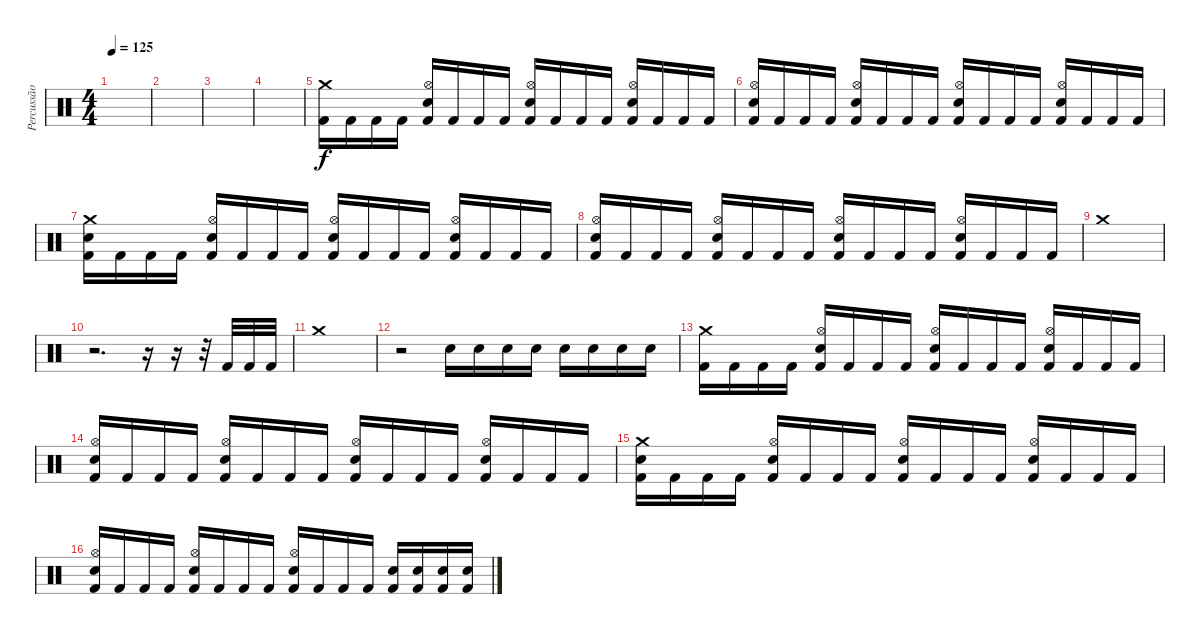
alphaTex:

\track ("Percussão" "Percussão") {instrument percussion}
\staff {score}
\articulation defaults
\ts (4 4)
\tempo 125
\clef neutral
\ks c
|
|
|
|
("Crash medium (hit)" "Kick (hit) 2").16 "Kick (hit) 2".16 "Kick (hit) 2".16 "Kick (hit) 2".16 ("Hi-Hat (open)" "Electric Snare (hit)" "Kick (hit) 2").16 "Kick (hit) 2".16 "Kick (hit) 2".16 "Kick (hit) 2".16 ("Hi-Hat (open)" "Electric Snare (hit)" "Kick (hit) 2").16 "Kick (hit) 2".16 "Kick (hit) 2".16 "Kick (hit) 2".16 ("Hi-Hat (open)" "Electric Snare (hit)" "Kick (hit) 2").16 "Kick (hit) 2".16 "Kick (hit) 2".16 "Kick (hit) 2".16 |
("Hi-Hat (open)" "Electric Snare (hit)" "Kick (hit) 2").16 "Kick (hit) 2".16 "Kick (hit) 2".16 "Kick (hit) 2".16 ("Hi-Hat (open)" "Electric Snare (hit)" "Kick (hit) 2").16 "Kick (hit) 2".16 "Kick (hit) 2".16 "Kick (hit) 2".16 ("Hi-Hat (open)" "Electric Snare (hit)" "Kick (hit) 2").16 "Kick (hit) 2".16 "Kick (hit) 2".16 "Kick (hit) 2".16 ("Hi-Hat (open)" "Electric Snare (hit)" "Kick (hit) 2").16 "Kick (hit) 2".16 "Kick (hit) 2".16 "Kick (hit) 2".16 |
("Crash medium (hit)" "Electric Snare (hit)" "Kick (hit) 2").16 "Kick (hit) 2".16 "Kick (hit) 2".16 "Kick (hit) 2".16 ("Hi-Hat (open)" "Electric Snare (hit)" "Kick (hit) 2").16 "Kick (hit) 2".16 "Kick (hit) 2".16 "Kick (hit) 2".16 ("Hi-Hat (open)" "Electric Snare (hit)" "Kick (hit) 2").16 "Kick (hit) 2".16 "Kick (hit) 2".16 "Kick (hit) 2".16 ("Hi-Hat (open)" "Electric Snare (hit)" "Kick (hit) 2").16 "Kick (hit) 2".16 "Kick (hit) 2".16 "Kick (hit) 2".16 |
("Hi-Hat (open)" "Electric Snare (hit)" "Kick (hit) 2").16 "Kick (hit) 2".16 "Kick (hit) 2".16 "Kick (hit) 2".16 ("Hi-Hat (open)" "Electric Snare (hit)" "Kick (hit) 2").16 "Kick (hit) 2".16 "Kick (hit) 2".16 "Kick (hit) 2".16 ("Hi-Hat (open)" "Electric Snare (hit)" "Kick (hit) 2").16 "Kick (hit) 2".16 "Kick (hit) 2".16 "Kick (hit) 2".16 ("Hi-Hat (open)" "Electric Snare (hit)" "Kick (hit) 2").16 "Kick (hit) 2".16 "Kick (hit) 2".16 "Kick (hit) 2".16 |
"Crash medium (hit)".1 |
r.2{d} r.16 r.16 r.32 "Kick (hit) 2".32 "Kick (hit) 2".32 "Kick (hit) 2".32 |
"Crash medium (hit)".1 |
r.2 "Electric Snare (hit)".16 "Electric Snare (hit)".16 "Electric Snare (hit)".16 "Electric Snare (hit)".16 "Electric Snare (hit)".16 "Electric Snare (hit)".16 "Electric Snare (hit)".16 "Electric Snare (hit)".16 |
("Crash medium (hit)" "Kick (hit) 2").16 "Kick (hit) 2".16 "Kick (hit) 2".16 "Kick (hit) 2".16 ("Hi-Hat (open)" "Electric Snare (hit)" "Kick (hit) 2").16 "Kick (hit) 2".16 "Kick (hit) 2".16 "Kick (hit) 2".16 ("Hi-Hat (open)" "Electric Snare (hit)" "Kick (hit) 2").16 "Kick (hit) 2".16 "Kick (hit) 2".16 "Kick (hit) 2".16 ("Hi-Hat (open)" "Electric Snare (hit)" "Kick (hit) 2").16 "Kick (hit) 2".16 "Kick (hit) 2".16 "Kick (hit) 2".16 |
("Hi-Hat (open)" "Electric Snare (hit)" "Kick (hit) 2").16 "Kick (hit) 2".16 "Kick (hit) 2".16 "Kick (hit) 2".16 ("Hi-Hat (open)" "Electric Snare (hit)" "Kick (hit) 2").16 "Kick (hit) 2".16 "Kick (hit) 2".16 "Kick (hit) 2".16 ("Hi-Hat (open)" "Electric Snare (hit)" "Kick (hit) 2").16 "Kick (hit) 2".16 "Kick (hit) 2".16 "Kick (hit) 2".16 ("Hi-Hat (open)" "Electric Snare (hit)" "Kick (hit) 2").16 "Kick (hit) 2".16 "Kick (hit) 2".16 "Kick (hit) 2".16 |
("Crash medium (hit)" "Electric Snare (hit)" "Kick (hit) 2").16 "Kick (hit) 2".16 "Kick (hit) 2".16 "Kick (hit) 2".16 ("Hi-Hat (open)" "Electric Snare (hit)" "Kick (hit) 2").16 "Kick (hit) 2".16 "Kick (hit) 2".16 "Kick (hit) 2".16 ("Hi-Hat (open)" "Electric Snare (hit)" "Kick (hit) 2").16 "Kick (hit) 2".16 "Kick (hit) 2".16 "Kick (hit) 2".16 ("Hi-Hat (open)" "Electric Snare (hit)" "Kick (hit) 2").16 "Kick (hit) 2".16 "Kick (hit) 2".16 "Kick (hit) 2".16 |
("Hi-Hat (open)" "Electric Snare (hit)" "Kick (hit) 2").16 "Kick (hit) 2".16 "Kick (hit) 2".16 "Kick (hit) 2".16 ("Hi-Hat (open)" "Electric Snare (hit)" "Kick (hit) 2").16 "Kick (hit) 2".16 "Kick (hit) 2".16 "Kick (hit) 2".16 ("Hi-Hat (open)" "Electric Snare (hit)" "Kick (hit) 2").16 "Kick (hit) 2".16 "Kick (hit) 2".16 "Kick (hit) 2".16 ("Electric Snare (hit)" "Kick (hit) 2").16 ("Electric Snare (hit)" "Kick (hit) 2").16 ("Electric Snare (hit)" "Kick (hit) 2").16 ("Electric Snare (hit)" "Kick (hit) 2").16
